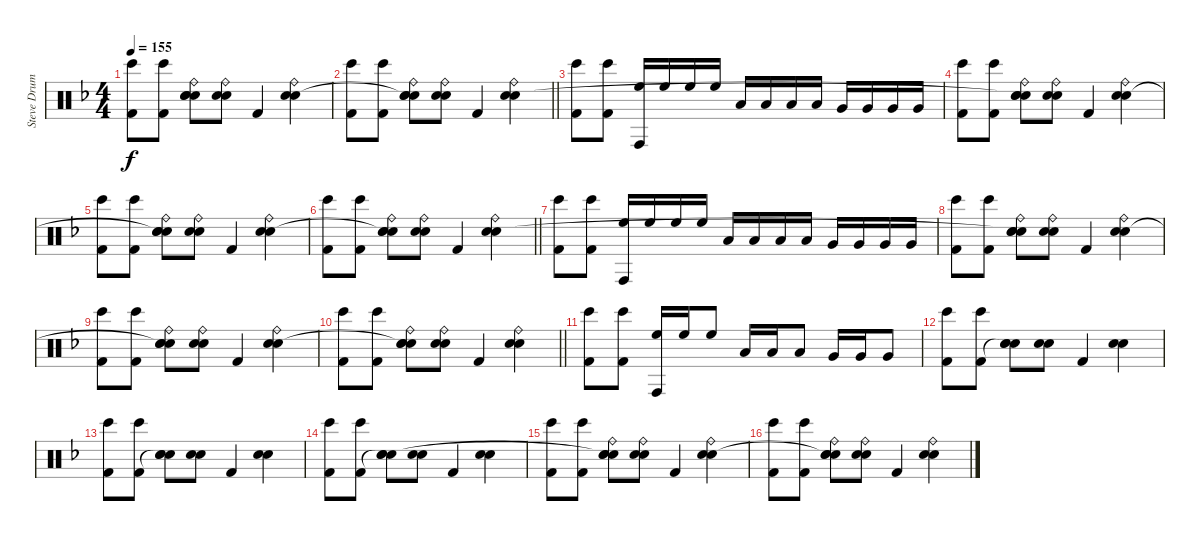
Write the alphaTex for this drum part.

\track ("Steve Drums" "Steve Drum") {instrument percussion}
\staff {score}
\articulation defaults
\ts (4 4)
\tempo 155
\clef neutral
\ks f
("Bongo High (hit)" "Kick (hit) 2").8{dy f} ("Bongo High (hit)" "Kick (hit) 2").8 ("Ride (bell)" "Snare (hit) 2" "Snare (hit)"{t} "Electric Snare (hit)").8 ("Ride (bell)" "Snare (hit) 2" "Electric Snare (hit)").8 "Kick (hit) 2".4 ("Ride (bell)" "Snare (hit) 2" "Electric Snare (hit)").4 |
\barLineRight lightlight
("Bongo High (hit)" "Kick (hit) 2").8 ("Bongo High (hit)" "Kick (hit) 2").8 ("Ride (bell)" "Snare (hit) 2" "Snare (hit)"{t} "Electric Snare (hit)").8 ("Ride (bell)" "Snare (hit) 2" "Electric Snare (hit)").8 "Kick (hit) 2".4 ("Ride (bell)" "Snare (hit) 2" "Electric Snare (hit)").4 |
("Bongo High (hit)" "Kick (hit) 2").8 ("Bongo High (hit)" "Kick (hit) 2").8 ("Conga high (hit)" "High Floor Tom (hit)").16 "High Floor Tom (hit)".16 "High Floor Tom (hit)".16 "High Floor Tom (hit)".16 "Low Tom (hit)".16 "Low Tom (hit)".16 "Low Tom (hit)".16 "Low Tom (hit)".16 "Very Low Tom (hit)".16 "Very Low Tom (hit)".16 "Very Low Tom (hit)".16 "Very Low Tom (hit)".16 |
("Bongo High (hit)" "Kick (hit) 2").8 ("Bongo High (hit)" "Kick (hit) 2").8 ("Ride (bell)" "Snare (hit) 2" "Snare (hit)"{t} "Electric Snare (hit)").8 ("Ride (bell)" "Snare (hit) 2" "Electric Snare (hit)").8 "Kick (hit) 2".4 ("Ride (bell)" "Snare (hit) 2" "Electric Snare (hit)").4 |
("Bongo High (hit)" "Kick (hit) 2").8 ("Bongo High (hit)" "Kick (hit) 2").8 ("Ride (bell)" "Snare (hit) 2" "Snare (hit)"{t} "Electric Snare (hit)").8 ("Ride (bell)" "Snare (hit) 2" "Electric Snare (hit)").8 "Kick (hit) 2".4 ("Ride (bell)" "Snare (hit) 2" "Electric Snare (hit)").4 |
\barLineRight lightlight
("Bongo High (hit)" "Kick (hit) 2").8 ("Bongo High (hit)" "Kick (hit) 2").8 ("Ride (bell)" "Snare (hit) 2" "Snare (hit)"{t} "Electric Snare (hit)").8 ("Ride (bell)" "Snare (hit) 2" "Electric Snare (hit)").8 "Kick (hit) 2".4 ("Ride (bell)" "Snare (hit) 2" "Electric Snare (hit)").4 |
("Bongo High (hit)" "Kick (hit) 2").8 ("Bongo High (hit)" "Kick (hit) 2").8 ("Conga high (hit)" "High Floor Tom (hit)").16 "High Floor Tom (hit)".16 "High Floor Tom (hit)".16 "High Floor Tom (hit)".16 "Low Tom (hit)".16 "Low Tom (hit)".16 "Low Tom (hit)".16 "Low Tom (hit)".16 "Very Low Tom (hit)".16 "Very Low Tom (hit)".16 "Very Low Tom (hit)".16 "Very Low Tom (hit)".16 |
("Bongo High (hit)" "Kick (hit) 2").8 ("Bongo High (hit)" "Kick (hit) 2").8 ("Ride (bell)" "Snare (hit) 2" "Snare (hit)"{t} "Electric Snare (hit)").8 ("Ride (bell)" "Snare (hit) 2" "Electric Snare (hit)").8 "Kick (hit) 2".4 ("Ride (bell)" "Snare (hit) 2" "Electric Snare (hit)").4 |
("Bongo High (hit)" "Kick (hit) 2").8 ("Bongo High (hit)" "Kick (hit) 2").8 ("Ride (bell)" "Snare (hit) 2" "Snare (hit)"{t} "Electric Snare (hit)").8 ("Ride (bell)" "Snare (hit) 2" "Electric Snare (hit)").8 "Kick (hit) 2".4 ("Ride (bell)" "Snare (hit) 2" "Electric Snare (hit)").4 |
\barLineRight lightlight
("Bongo High (hit)" "Kick (hit) 2").8 ("Bongo High (hit)" "Kick (hit) 2").8 ("Ride (bell)" "Snare (hit) 2" "Snare (hit)"{t} "Electric Snare (hit)").8 ("Ride (bell)" "Snare (hit) 2" "Electric Snare (hit)").8 "Kick (hit) 2".4 ("Ride (bell)" "Snare (hit) 2" "Electric Snare (hit)").4 |
("Bongo High (hit)" "Kick (hit) 2").8 ("Bongo High (hit)" "Kick (hit) 2").8 ("Conga high (hit)" "High Floor Tom (hit)").16 "High Floor Tom (hit)".16 "High Floor Tom (hit)".8 "Low Tom (hit)".16 "Low Tom (hit)".16 "Low Tom (hit)".8 "Very Low Tom (hit)".16 "Very Low Tom (hit)".16 "Very Low Tom (hit)".8 |
("Bongo High (hit)" "Kick (hit) 2").8 ("Bongo High (hit)" "Kick (hit) 2").8 ("Snare (hit) 2" "Snare (hit)"{t} "Electric Snare (hit)").8 ("Snare (hit) 2" "Electric Snare (hit)").8 "Kick (hit) 2".4 ("Snare (hit) 2" "Electric Snare (hit)").4 |
("Bongo High (hit)" "Kick (hit) 2").8 ("Bongo High (hit)" "Kick (hit) 2").8 ("Snare (hit) 2" "Snare (hit)"{t} "Electric Snare (hit)").8 ("Snare (hit) 2" "Electric Snare (hit)").8 "Kick (hit) 2".4 ("Snare (hit) 2" "Electric Snare (hit)").4 |
("Bongo High (hit)" "Kick (hit) 2").8 ("Bongo High (hit)" "Kick (hit) 2").8 ("Snare (hit) 2" "Snare (hit)"{t} "Electric Snare (hit)").8 ("Snare (hit) 2" "Electric Snare (hit)").8 "Kick (hit) 2".4 ("Snare (hit) 2" "Electric Snare (hit)").4 |
("Bongo High (hit)" "Kick (hit) 2").8 ("Bongo High (hit)" "Kick (hit) 2").8 ("Ride (bell)" "Snare (hit) 2" "Snare (hit)"{t} "Electric Snare (hit)").8 ("Ride (bell)" "Snare (hit) 2" "Electric Snare (hit)").8 "Kick (hit) 2".4 ("Ride (bell)" "Snare (hit) 2" "Electric Snare (hit)").4 |
("Bongo High (hit)" "Kick (hit) 2").8 ("Bongo High (hit)" "Kick (hit) 2").8 ("Ride (bell)" "Snare (hit) 2" "Snare (hit)"{t} "Electric Snare (hit)").8 ("Ride (bell)" "Snare (hit) 2" "Electric Snare (hit)").8 "Kick (hit) 2".4 ("Ride (bell)" "Snare (hit) 2" "Electric Snare (hit)").4
